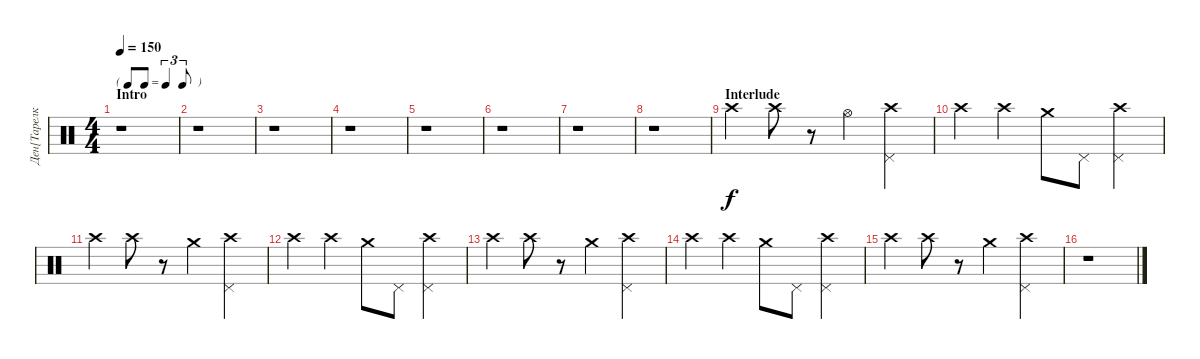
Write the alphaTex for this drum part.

\track ("Ден[Тарелки]" "Ден[Тарелк") {instrument percussion}
\staff {score}
\articulation defaults
\ts (4 4)
\tf triplet8th
\section ("" "Intro")
\tempo 150
\clef neutral
\ks c
r.1{dy f} |
r.1 |
r.1 |
r.1 |
r.1 |
r.1 |
r.1 |
r.1 |
\section ("" "Interlude")
"Crash high (hit)".4 "Crash high (hit)".8 r.8 "Hi-Hat (open)".4 ("Pedal Hi-Hat (hit)" "Crash high (hit)").4 |
"Crash high (hit)".4 "Crash high (hit)".4 "Crash medium (hit)".8 "Pedal Hi-Hat (hit)".8 ("Pedal Hi-Hat (hit)" "Crash high (hit)").4 |
"Crash high (hit)".4 "Crash high (hit)".8 r.8 "Crash medium (hit)".4 ("Pedal Hi-Hat (hit)" "Crash high (hit)").4 |
"Crash high (hit)".4 "Crash high (hit)".4 "Crash medium (hit)".8 "Pedal Hi-Hat (hit)".8 ("Pedal Hi-Hat (hit)" "Crash high (hit)").4 |
"Crash high (hit)".4 "Crash high (hit)".8 r.8 "Crash medium (hit)".4 ("Pedal Hi-Hat (hit)" "Crash high (hit)").4 |
"Crash high (hit)".4 "Crash high (hit)".4 "Crash medium (hit)".8 "Pedal Hi-Hat (hit)".8 ("Pedal Hi-Hat (hit)" "Crash high (hit)").4 |
"Crash high (hit)".4 "Crash high (hit)".8 r.8 "Crash medium (hit)".4 ("Pedal Hi-Hat (hit)" "Crash high (hit)").4 |
r.1
